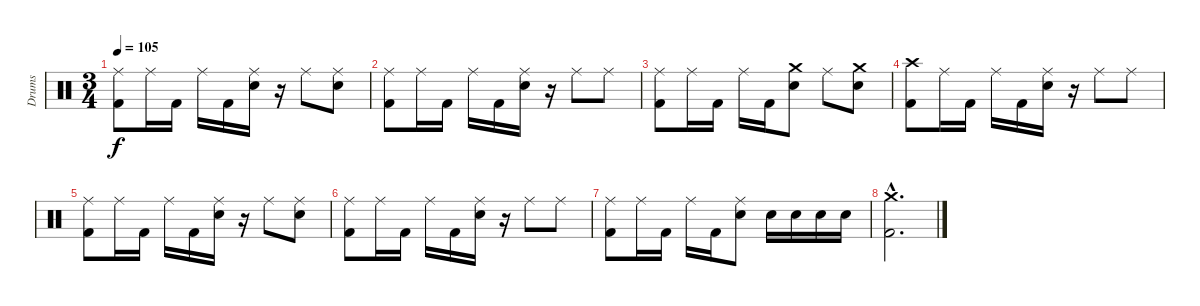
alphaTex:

\track ("Drums" "Drums") {instrument percussion}
\staff {score}
\articulation defaults
\ts (3 4)
\tempo 105
\clef neutral
\ks c
("Ride (middle)" "Kick (hit) 2").8{dy f} "Ride (middle)".16 "Kick (hit) 2".16 "Ride (middle)".16 "Kick (hit) 2".16 ("Ride (middle)" "Electric Snare (hit)").16 r.16 "Ride (middle)".8 ("Ride (middle)" "Electric Snare (hit)").8 |
("Ride (middle)" "Kick (hit) 2").8 "Ride (middle)".16 "Kick (hit) 2".16 "Ride (middle)".16 "Kick (hit) 2".16 ("Ride (middle)" "Electric Snare (hit)").16 r.16 "Ride (middle)".8 "Ride (middle)".8 |
("Ride (middle)" "Kick (hit) 2").8 "Ride (middle)".16 "Kick (hit) 2".16 "Ride (middle)".16 "Kick (hit) 2".16 ("Crash medium (hit)" "Electric Snare (hit)").8 "Ride (middle)".8 ("Crash medium (hit)" "Electric Snare (hit)").8 |
("Crash high (hit)" "Kick (hit) 2").8 "Ride (middle)".16 "Kick (hit) 2".16 "Ride (middle)".16 "Kick (hit) 2".16 ("Ride (middle)" "Electric Snare (hit)").16 r.16 "Ride (middle)".8 "Ride (middle)".8 |
("Ride (middle)" "Kick (hit) 2").8 "Ride (middle)".16 "Kick (hit) 2".16 "Ride (middle)".16 "Kick (hit) 2".16 ("Ride (middle)" "Electric Snare (hit)").16 r.16 "Ride (middle)".8 ("Ride (middle)" "Electric Snare (hit)").8 |
("Ride (middle)" "Kick (hit) 2").8 "Ride (middle)".16 "Kick (hit) 2".16 "Ride (middle)".16 "Kick (hit) 2".16 ("Ride (middle)" "Electric Snare (hit)").16 r.16 "Ride (middle)".8 "Ride (middle)".8 |
("Ride (middle)" "Kick (hit) 2").8 "Ride (middle)".16 "Kick (hit) 2".16 "Ride (middle)".16 "Kick (hit) 2".16 ("Ride (middle)" "Electric Snare (hit)").8 "Electric Snare (hit)".16 "Electric Snare (hit)".16 "Electric Snare (hit)".16 "Electric Snare (hit)".16 |
("Crash medium (hit)"{hac} "Kick (hit) 2"{hac}).2{d}
